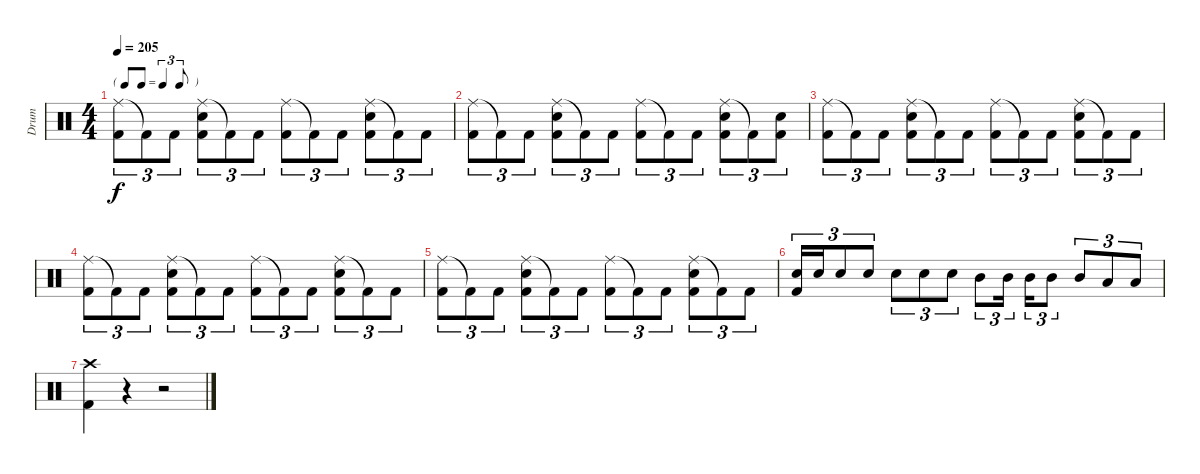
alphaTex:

\track ("Drum" "Drum") {instrument percussion}
\staff {score}
\articulation defaults
\ts (4 4)
\tf triplet8th
\tempo 205
\clef neutral
\ks c
("Ride (middle)" "Kick (hit) 2").8{tu (3 2) dy f} "Kick (hit) 2"{t}.8{tu (3 2)} "Kick (hit) 2".8{tu (3 2)} ("Ride (middle)" "Snare (hit) 2" "Kick (hit) 2").8{tu (3 2)} "Kick (hit) 2"{t}.8{tu (3 2)} "Kick (hit) 2".8{tu (3 2)} ("Ride (middle)" "Kick (hit) 2").8{tu (3 2)} "Kick (hit) 2"{t}.8{tu (3 2)} "Kick (hit) 2".8{tu (3 2)} ("Ride (middle)" "Snare (hit) 2" "Kick (hit) 2").8{tu (3 2)} "Kick (hit) 2"{t}.8{tu (3 2)} "Kick (hit) 2".8{tu (3 2)} |
("Ride (middle)" "Kick (hit) 2").8{tu (3 2)} "Kick (hit) 2"{t}.8{tu (3 2)} "Kick (hit) 2".8{tu (3 2)} ("Ride (middle)" "Snare (hit) 2" "Kick (hit) 2").8{tu (3 2)} "Kick (hit) 2"{t}.8{tu (3 2)} "Kick (hit) 2".8{tu (3 2)} ("Ride (middle)" "Kick (hit) 2").8{tu (3 2)} "Kick (hit) 2"{t}.8{tu (3 2)} "Kick (hit) 2".8{tu (3 2)} ("Ride (middle)" "Snare (hit) 2" "Kick (hit) 2").8{tu (3 2)} "Kick (hit) 2"{t}.8{tu (3 2)} ("Snare (hit) 2" "Kick (hit) 2").8{tu (3 2)} |
("Ride (middle)" "Kick (hit) 2").8{tu (3 2)} "Kick (hit) 2"{t}.8{tu (3 2)} "Kick (hit) 2".8{tu (3 2)} ("Ride (middle)" "Snare (hit) 2" "Kick (hit) 2").8{tu (3 2)} "Kick (hit) 2"{t}.8{tu (3 2)} "Kick (hit) 2".8{tu (3 2)} ("Ride (middle)" "Kick (hit) 2").8{tu (3 2)} "Kick (hit) 2"{t}.8{tu (3 2)} "Kick (hit) 2".8{tu (3 2)} ("Ride (middle)" "Snare (hit) 2" "Kick (hit) 2").8{tu (3 2)} "Kick (hit) 2"{t}.8{tu (3 2)} "Kick (hit) 2".8{tu (3 2)} |
("Ride (middle)" "Kick (hit) 2").8{tu (3 2)} "Kick (hit) 2"{t}.8{tu (3 2)} "Kick (hit) 2".8{tu (3 2)} ("Ride (middle)" "Snare (hit) 2" "Kick (hit) 2").8{tu (3 2)} "Kick (hit) 2"{t}.8{tu (3 2)} "Kick (hit) 2".8{tu (3 2)} ("Ride (middle)" "Kick (hit) 2").8{tu (3 2)} "Kick (hit) 2"{t}.8{tu (3 2)} "Kick (hit) 2".8{tu (3 2)} ("Ride (middle)" "Snare (hit) 2" "Kick (hit) 2").8{tu (3 2)} "Kick (hit) 2"{t}.8{tu (3 2)} "Kick (hit) 2".8{tu (3 2)} |
("Ride (middle)" "Kick (hit) 2").8{tu (3 2)} "Kick (hit) 2"{t}.8{tu (3 2)} "Kick (hit) 2".8{tu (3 2)} ("Ride (middle)" "Snare (hit) 2" "Kick (hit) 2").8{tu (3 2)} "Kick (hit) 2"{t}.8{tu (3 2)} "Kick (hit) 2".8{tu (3 2)} ("Ride (middle)" "Kick (hit) 2").8{tu (3 2)} "Kick (hit) 2"{t}.8{tu (3 2)} "Kick (hit) 2".8{tu (3 2)} ("Ride (middle)" "Snare (hit) 2" "Kick (hit) 2").8{tu (3 2)} "Kick (hit) 2"{t}.8{tu (3 2)} "Kick (hit) 2".8{tu (3 2)} |
("Snare (hit) 2" "Kick (hit) 2").16{tu (3 2)} "Snare (hit) 2".16{tu (3 2)} "Snare (hit) 2".8{tu (3 2)} "Snare (hit) 2".8{tu (3 2)} "Snare (hit) 2".8{tu (3 2)} "Snare (hit) 2".8{tu (3 2)} "Snare (hit) 2".8{tu (3 2)} "Mid Tom (hit)".8{tu (3 2)} "Mid Tom (hit)".16{tu (3 2)} "Mid Tom (hit)".16{tu (3 2)} "Mid Tom (hit)".8{tu (3 2)} "Mid Tom (hit)".8{tu (3 2)} "Low Tom (hit)".8{tu (3 2)} "Low Tom (hit)".8{tu (3 2)} |
("Crash high (hit)" "Kick (hit) 2").4 r.4 r.2
